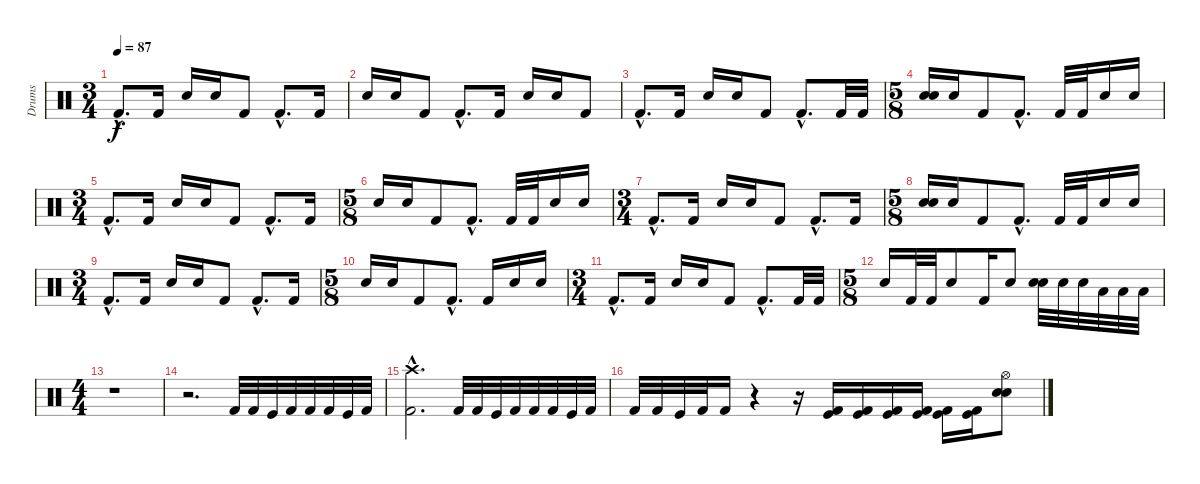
\track ("Drums" "Drums") {instrument percussion}
\staff {score}
\articulation defaults
\ts (3 4)
\tempo 87
\clef neutral
\ks c "Kick (hit) 2"{hac}.8{d dy f} "Kick (hit) 2".16 "Electric Snare (hit)".16 "Snare (hit) 2".16 "Kick (hit) 2".8 "Kick (hit) 2"{hac}.8{d} "Kick (hit) 2".16
|
"Electric Snare (hit)".16 "Snare (hit) 2".16 "Kick (hit) 2".8 "Kick (hit) 2"{hac}.8{d} "Kick (hit) 2".16 "Electric Snare (hit)".16 "Snare (hit) 2".16 "Kick (hit) 2".8 |
"Kick (hit) 2"{hac}.8{d} "Kick (hit) 2".16 "Electric Snare (hit)".16 "Snare (hit) 2".16 "Kick (hit) 2".8 "Kick (hit) 2"{hac}.8{d} "Kick (hit) 2".32 "Kick (hit) 2".32 |
\ts (5 8)
("Electric Snare (hit)" "Snare (hit)").16 "Snare (hit) 2".16 "Kick (hit) 2".8 "Kick (hit) 2"{hac}.8{d} "Kick (hit) 2".32 "Kick (hit) 2".32 "Electric Snare (hit)".16 "Snare (hit) 2".16 |
\ts (3 4)
"Kick (hit) 2"{hac}.8{d} "Kick (hit) 2".16 "Electric Snare (hit)".16 "Snare (hit) 2".16 "Kick (hit) 2".8 "Kick (hit) 2"{hac}.8{d} "Kick (hit) 2".16 |
\ts (5 8)
"Electric Snare (hit)".16 "Snare (hit) 2".16 "Kick (hit) 2".8 "Kick (hit) 2"{hac}.8{d} "Kick (hit) 2".32 "Kick (hit) 2".32 "Electric Snare (hit)".16 "Snare (hit) 2".16 |
\ts (3 4)
"Kick (hit) 2"{hac}.8{d} "Kick (hit) 2".16 "Electric Snare (hit)".16 "Snare (hit) 2".16 "Kick (hit) 2".8 "Kick (hit) 2"{hac}.8{d} "Kick (hit) 2".16 |
\ts (5 8)
("Electric Snare (hit)" "Snare (hit)").16 "Snare (hit) 2".16 "Kick (hit) 2".8 "Kick (hit) 2"{hac}.8{d} "Kick (hit) 2".32 "Kick (hit) 2".32 "Electric Snare (hit)".16 "Snare (hit) 2".16 |
\ts (3 4)
"Kick (hit) 2"{hac}.8{d} "Kick (hit) 2".16 "Electric Snare (hit)".16 "Snare (hit) 2".16 "Kick (hit) 2".8 "Kick (hit) 2"{hac}.8{d} "Kick (hit) 2".16 |
\ts (5 8)
"Electric Snare (hit)".16 "Snare (hit) 2".16 "Kick (hit) 2".8 "Kick (hit) 2"{hac}.8{d} "Kick (hit) 2".16 "Electric Snare (hit)".16 "Snare (hit) 2".16 |
\ts (3 4)
"Kick (hit) 2"{hac}.8{d} "Kick (hit) 2".16 "Electric Snare (hit)".16 "Snare (hit) 2".16 "Kick (hit) 2".8 "Kick (hit) 2"{hac}.8{d} "Kick (hit) 2".32 "Kick (hit) 2".32 |
\ts (5 8)
"Snare (hit) 2".16 "Kick (hit) 2".32 "Kick (hit) 2".32 "Snare (hit) 2".8 "Kick (hit) 2".16 "Snare (hit) 2".8 ("Snare (hit) 2" "Snare (hit)").32 "Snare (hit) 2".32 "Snare (hit) 2".32 "Low Floor Tom (hit)".32 "Low Floor Tom (hit)".32 "Low Floor Tom (hit)".32 |
\ts (4 4)
r.1 |
r.2{d} "Kick (hit) 2".32 "Kick (hit) 2".32 "Kick (hit)".32 "Kick (hit) 2".32 "Kick (hit) 2".32 "Kick (hit) 2".32 "Kick (hit)".32 "Kick (hit) 2".32 |
("Crash high (hit)"{hac} "Kick (hit) 2"{hac}).2{d} "Kick (hit) 2".32 "Kick (hit) 2".32 "Kick (hit)".32 "Kick (hit) 2".32 "Kick (hit) 2".32 "Kick (hit) 2".32 "Kick (hit)".32 "Kick (hit) 2".32 |
"Kick (hit) 2".32 "Kick (hit) 2".32 "Kick (hit)".32 "Kick (hit) 2".32 "Kick (hit) 2".16 r.4 r.16 ("Kick (hit)" "Kick (hit) 2").16 ("Kick (hit)" "Kick (hit) 2").16 ("Kick (hit)" "Kick (hit) 2").16 ("Kick (hit)" "Kick (hit) 2").16 ("Kick (hit)" "Kick (hit) 2").16 ("Kick (hit)" "Kick (hit) 2").16 ("Hi-Hat (open)" "Electric Snare (hit)" "Snare (hit) 2").8
